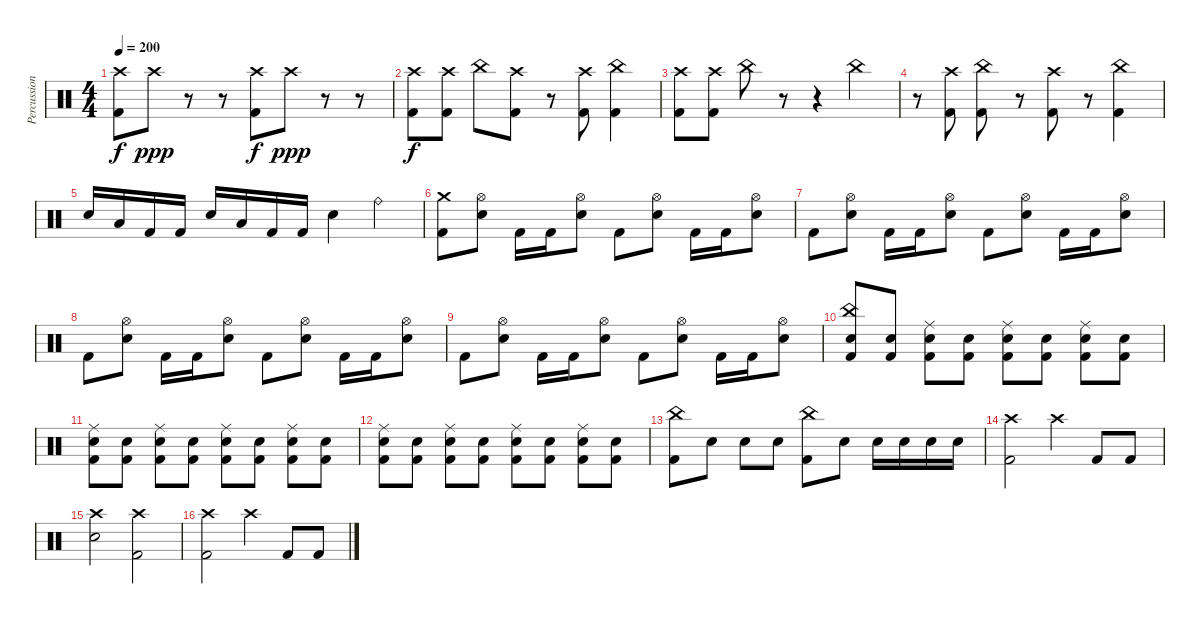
\track ("Percussion" "Percussion") {instrument percussion}
\staff {score}
\articulation defaults
\ts (4 4)
\tempo 200
\clef neutral
\ks c
("Crash high (hit)" "Kick (hit) 2").8{dy f} "Crash high (hit)".8{dy ppp} r.8 r.8 ("Crash high (hit)" "Kick (hit) 2").8{dy f} "Crash high (hit)".8{dy ppp} r.8 r.8 |
("Crash high (hit)" "Kick (hit) 2").8{dy f} ("Crash high (hit)" "Kick (hit) 2").8 "China (hit)".8 ("Crash high (hit)" "Kick (hit) 2").8 r.8 ("Crash high (hit)" "Kick (hit) 2").8 ("China (hit)" "Kick (hit) 2").4 |
("Crash high (hit)" "Kick (hit) 2").8 ("Crash high (hit)" "Kick (hit) 2").8 "China (hit)".8 r.8 r.4 "China (hit)".4 |
r.8 ("Crash high (hit)" "Kick (hit) 2").8 ("China (hit)" "Kick (hit) 2").8 r.8 ("Crash high (hit)" "Kick (hit) 2").8 r.8 ("China (hit)" "Kick (hit) 2").4 |
"Electric Snare (hit)".16 "Low Tom (hit)".16 "Kick (hit) 2".16 "Kick (hit) 2".16 "Electric Snare (hit)".16 "Low Tom (hit)".16 "Kick (hit) 2".16 "Kick (hit) 2".16 "Electric Snare (hit)".4 "Ride (bell)".4 |
("Crash medium (hit)" "Kick (hit) 2").8 ("Hi-Hat (open)" "Electric Snare (hit)").8 "Kick (hit) 2".16 "Kick (hit) 2".16 ("Hi-Hat (open)" "Electric Snare (hit)").8 "Kick (hit) 2".8 ("Hi-Hat (open)" "Electric Snare (hit)").8 "Kick (hit) 2".16 "Kick (hit) 2".16 ("Hi-Hat (open)" "Electric Snare (hit)").8 |
"Kick (hit) 2".8 ("Hi-Hat (open)" "Electric Snare (hit)").8 "Kick (hit) 2".16 "Kick (hit) 2".16 ("Hi-Hat (open)" "Electric Snare (hit)").8 "Kick (hit) 2".8 ("Hi-Hat (open)" "Electric Snare (hit)").8 "Kick (hit) 2".16 "Kick (hit) 2".16 ("Hi-Hat (open)" "Electric Snare (hit)").8 |
"Kick (hit) 2".8 ("Hi-Hat (open)" "Electric Snare (hit)").8 "Kick (hit) 2".16 "Kick (hit) 2".16 ("Hi-Hat (open)" "Electric Snare (hit)").8 "Kick (hit) 2".8 ("Hi-Hat (open)" "Electric Snare (hit)").8 "Kick (hit) 2".16 "Kick (hit) 2".16 ("Hi-Hat (open)" "Electric Snare (hit)").8 |
"Kick (hit) 2".8 ("Hi-Hat (open)" "Electric Snare (hit)").8 "Kick (hit) 2".16 "Kick (hit) 2".16 ("Hi-Hat (open)" "Electric Snare (hit)").8 "Kick (hit) 2".8 ("Hi-Hat (open)" "Electric Snare (hit)").8 "Kick (hit) 2".16 "Kick (hit) 2".16 ("Hi-Hat (open)" "Electric Snare (hit)").8 |
("China (hit)" "Electric Snare (hit)" "Kick (hit) 2").8 ("Electric Snare (hit)" "Kick (hit) 2").8 ("Ride (middle)" "Electric Snare (hit)" "Kick (hit) 2").8 ("Electric Snare (hit)" "Kick (hit) 2").8 ("Ride (middle)" "Electric Snare (hit)" "Kick (hit) 2").8 ("Electric Snare (hit)" "Kick (hit) 2").8 ("Ride (middle)" "Electric Snare (hit)" "Kick (hit) 2").8 ("Electric Snare (hit)" "Kick (hit) 2").8 |
("Ride (middle)" "Electric Snare (hit)" "Kick (hit) 2").8 ("Electric Snare (hit)" "Kick (hit) 2").8 ("Ride (middle)" "Electric Snare (hit)" "Kick (hit) 2").8 ("Electric Snare (hit)" "Kick (hit) 2").8 ("Ride (middle)" "Electric Snare (hit)" "Kick (hit) 2").8 ("Electric Snare (hit)" "Kick (hit) 2").8 ("Ride (middle)" "Electric Snare (hit)" "Kick (hit) 2").8 ("Electric Snare (hit)" "Kick (hit) 2").8 |
("Ride (middle)" "Electric Snare (hit)" "Kick (hit) 2").8 ("Electric Snare (hit)" "Kick (hit) 2").8 ("Ride (middle)" "Electric Snare (hit)" "Kick (hit) 2").8 ("Electric Snare (hit)" "Kick (hit) 2").8 ("Ride (middle)" "Electric Snare (hit)" "Kick (hit) 2").8 ("Electric Snare (hit)" "Kick (hit) 2").8 ("Ride (middle)" "Electric Snare (hit)" "Kick (hit) 2").8 ("Electric Snare (hit)" "Kick (hit) 2").8 |
("China (hit)" "Kick (hit) 2").8 "Electric Snare (hit)".8 "Electric Snare (hit)".8 "Electric Snare (hit)".8 ("China (hit)" "Kick (hit) 2").8 "Electric Snare (hit)".8 "Electric Snare (hit)".16 "Electric Snare (hit)".16 "Electric Snare (hit)".16 "Electric Snare (hit)".16 |
("Crash high (hit)" "Kick (hit) 2").2 "Crash high (hit)".4 "Kick (hit) 2".8 "Kick (hit) 2".8 |
("Crash high (hit)" "Electric Snare (hit)").2 ("Crash high (hit)" "Kick (hit) 2").2 |
("Crash high (hit)" "Kick (hit) 2").2 "Crash high (hit)".4 "Kick (hit) 2".8 "Kick (hit) 2".8
